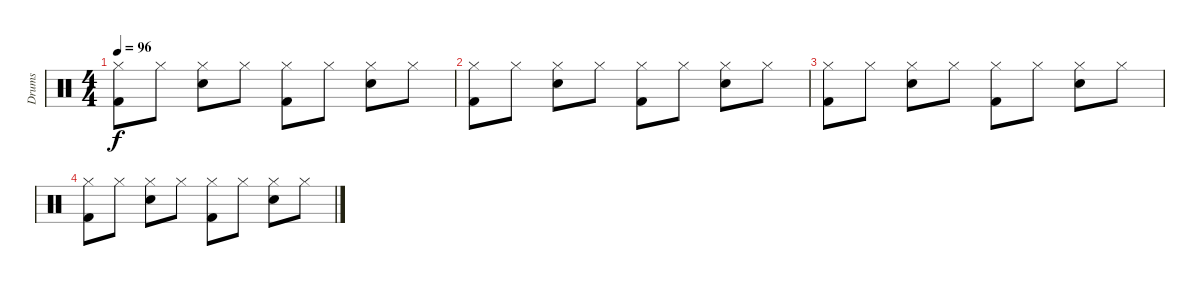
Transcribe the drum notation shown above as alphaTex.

\track ("Drums" "Drums") {instrument percussion}
\staff {score}
\articulation defaults
\ts (4 4)
\tempo 96
\clef neutral
\ks c
("Hi-Hat (closed)" "Kick (hit) 2").8{dy f} "Hi-Hat (closed)".8 ("Hi-Hat (closed)" "Snare (hit) 2").8 "Hi-Hat (closed)".8 ("Hi-Hat (closed)" "Kick (hit) 2").8 "Hi-Hat (closed)".8 ("Hi-Hat (closed)" "Snare (hit) 2").8 "Hi-Hat (closed)".8 |
("Hi-Hat (closed)" "Kick (hit) 2").8 "Hi-Hat (closed)".8 ("Hi-Hat (closed)" "Snare (hit) 2").8 "Hi-Hat (closed)".8 ("Hi-Hat (closed)" "Kick (hit) 2").8 "Hi-Hat (closed)".8 ("Hi-Hat (closed)" "Snare (hit) 2").8 "Hi-Hat (closed)".8 |
("Hi-Hat (closed)" "Kick (hit) 2").8 "Hi-Hat (closed)".8 ("Hi-Hat (closed)" "Snare (hit) 2").8 "Hi-Hat (closed)".8 ("Hi-Hat (closed)" "Kick (hit) 2").8 "Hi-Hat (closed)".8 ("Hi-Hat (closed)" "Snare (hit) 2").8 "Hi-Hat (closed)".8 |
("Hi-Hat (closed)" "Kick (hit) 2").8 "Hi-Hat (closed)".8 ("Hi-Hat (closed)" "Snare (hit) 2").8 "Hi-Hat (closed)".8 ("Hi-Hat (closed)" "Kick (hit) 2").8 "Hi-Hat (closed)".8 ("Hi-Hat (closed)" "Snare (hit) 2").8 "Hi-Hat (closed)".8
